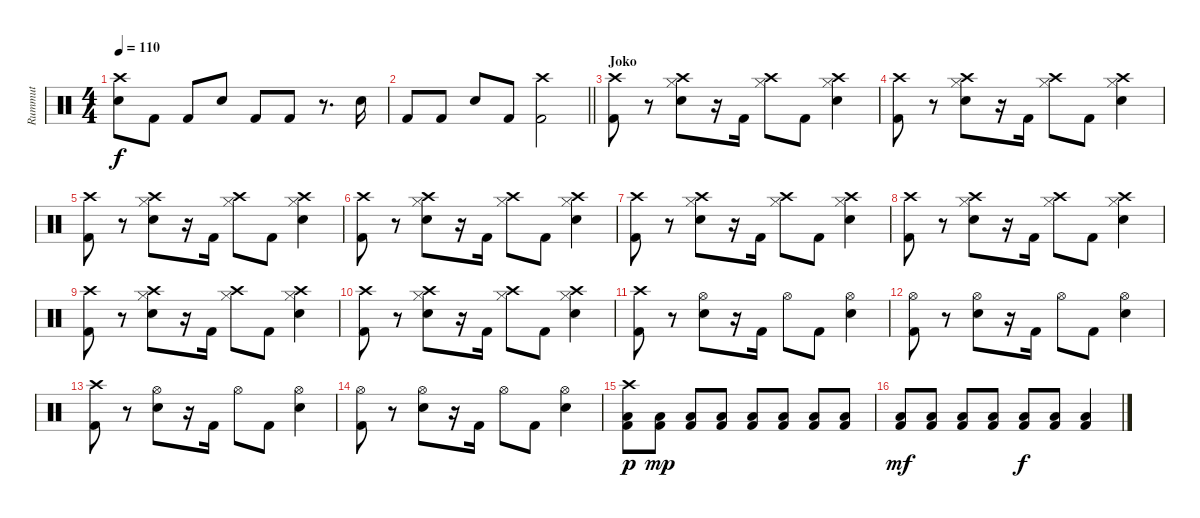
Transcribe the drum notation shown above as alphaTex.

\track ("Rummut" "Rummut") {instrument percussion}
\staff {score}
\articulation defaults
\ts (4 4)
\tempo 110
\clef neutral
\ks c
("Crash high (hit)" "Snare (hit) 2").8{dy f} "Kick (hit) 2".8 "Kick (hit) 2".8 "Snare (hit) 2".8 "Kick (hit) 2".8 "Kick (hit) 2".8 r.8{d} "Snare (hit) 2".16 |
\barLineRight lightlight "Kick (hit) 2".8 "Kick (hit) 2".8 "Snare (hit) 2".8 "Kick (hit) 2".8
("Crash high (hit)" "Kick (hit) 2").2 |
\section ("" "Joko")
("Crash high (hit)" "Kick (hit) 2").8 r.8 ("Crash high (hit)" "Hi-Hat (closed)" "Snare (hit) 2").8 r.16 "Kick (hit) 2".16 ("Crash high (hit)" "Hi-Hat (closed)").8 "Kick (hit) 2".8 ("Crash high (hit)" "Hi-Hat (closed)" "Snare (hit) 2").4 |
("Crash high (hit)" "Kick (hit) 2").8 r.8 ("Crash high (hit)" "Hi-Hat (closed)" "Snare (hit) 2").8 r.16 "Kick (hit) 2".16 ("Crash high (hit)" "Hi-Hat (closed)").8 "Kick (hit) 2".8 ("Crash high (hit)" "Hi-Hat (closed)" "Snare (hit) 2").4 |
("Crash high (hit)" "Kick (hit) 2").8 r.8 ("Crash high (hit)" "Hi-Hat (closed)" "Snare (hit) 2").8 r.16 "Kick (hit) 2".16 ("Crash high (hit)" "Hi-Hat (closed)").8 "Kick (hit) 2".8 ("Crash high (hit)" "Hi-Hat (closed)" "Snare (hit) 2").4 |
("Crash high (hit)" "Kick (hit) 2").8 r.8 ("Crash high (hit)" "Hi-Hat (closed)" "Snare (hit) 2").8 r.16 "Kick (hit) 2".16 ("Crash high (hit)" "Hi-Hat (closed)").8 "Kick (hit) 2".8 ("Crash high (hit)" "Hi-Hat (closed)" "Snare (hit) 2").4 |
("Crash high (hit)" "Kick (hit) 2").8 r.8 ("Crash high (hit)" "Hi-Hat (closed)" "Snare (hit) 2").8 r.16 "Kick (hit) 2".16 ("Crash high (hit)" "Hi-Hat (closed)").8 "Kick (hit) 2".8 ("Crash high (hit)" "Hi-Hat (closed)" "Snare (hit) 2").4 |
("Crash high (hit)" "Kick (hit) 2").8 r.8 ("Crash high (hit)" "Hi-Hat (closed)" "Snare (hit) 2").8 r.16 "Kick (hit) 2".16 ("Crash high (hit)" "Hi-Hat (closed)").8 "Kick (hit) 2".8 ("Crash high (hit)" "Hi-Hat (closed)" "Snare (hit) 2").4 |
("Crash high (hit)" "Kick (hit) 2").8 r.8 ("Crash high (hit)" "Hi-Hat (closed)" "Snare (hit) 2").8 r.16 "Kick (hit) 2".16 ("Crash high (hit)" "Hi-Hat (closed)").8 "Kick (hit) 2".8 ("Crash high (hit)" "Hi-Hat (closed)" "Snare (hit) 2").4 |
("Crash high (hit)" "Kick (hit) 2").8 r.8 ("Crash high (hit)" "Hi-Hat (closed)" "Snare (hit) 2").8 r.16 "Kick (hit) 2".16 ("Crash high (hit)" "Hi-Hat (closed)").8 "Kick (hit) 2".8 ("Crash high (hit)" "Hi-Hat (closed)" "Snare (hit) 2").4 |
("Crash high (hit)" "Kick (hit) 2").8 r.8 ("Hi-Hat (open)" "Snare (hit) 2").8 r.16 "Kick (hit) 2".16 "Hi-Hat (open)".8 "Kick (hit) 2".8 ("Hi-Hat (open)" "Snare (hit) 2").4 |
("Hi-Hat (open)" "Kick (hit) 2").8 r.8 ("Hi-Hat (open)" "Snare (hit) 2").8 r.16 "Kick (hit) 2".16 "Hi-Hat (open)".8 "Kick (hit) 2".8 ("Hi-Hat (open)" "Snare (hit) 2").4 |
("Crash high (hit)" "Kick (hit) 2").8 r.8 ("Hi-Hat (open)" "Snare (hit) 2").8 r.16 "Kick (hit) 2".16 "Hi-Hat (open)".8 "Kick (hit) 2".8 ("Hi-Hat (open)" "Snare (hit) 2").4 |
("Hi-Hat (open)" "Kick (hit) 2").8 r.8 ("Hi-Hat (open)" "Snare (hit) 2").8 r.16 "Kick (hit) 2".16 "Hi-Hat (open)".8 "Kick (hit) 2".8 ("Hi-Hat (open)" "Snare (hit) 2").4 |
("Crash high (hit)" "Low Floor Tom (hit)" "Kick (hit) 2").8{dy p} ("Low Floor Tom (hit)" "Kick (hit) 2").8{dy mp} ("Low Floor Tom (hit)" "Kick (hit) 2").8 ("Low Floor Tom (hit)" "Kick (hit) 2").8 ("Low Floor Tom (hit)" "Kick (hit) 2").8 ("Low Floor Tom (hit)" "Kick (hit) 2").8 ("Low Floor Tom (hit)" "Kick (hit) 2").8 ("Low Floor Tom (hit)" "Kick (hit) 2").8 |
("Low Floor Tom (hit)" "Kick (hit) 2").8{dy mf} ("Low Floor Tom (hit)" "Kick (hit) 2").8 ("Low Floor Tom (hit)" "Kick (hit) 2").8 ("Low Floor Tom (hit)" "Kick (hit) 2").8 ("Low Floor Tom (hit)" "Kick (hit) 2").8{dy f} ("Low Floor Tom (hit)" "Kick (hit) 2").8 ("Low Floor Tom (hit)" "Kick (hit) 2").4
